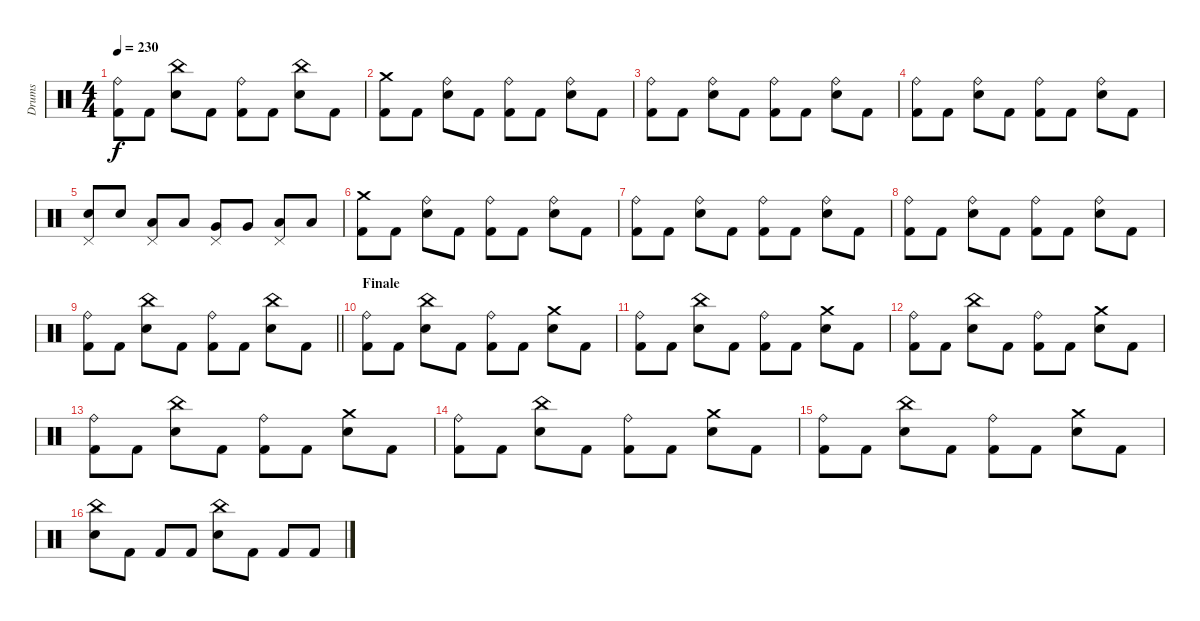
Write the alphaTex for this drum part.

\track ("Drums" "Drums") {instrument percussion}
\staff {score}
\articulation defaults
\ts (4 4)
\tempo 230
\clef neutral
\ks c
("Ride (bell)" "Kick (hit) 2").8{dy f} "Kick (hit) 2".8 ("China (hit)" "Snare (hit) 2").8 "Kick (hit) 2".8 ("Ride (bell)" "Kick (hit) 2").8 "Kick (hit) 2".8 ("China (hit)" "Snare (hit) 2").8 "Kick (hit) 2".8 |
("Crash medium (hit)" "Kick (hit) 2").8 "Kick (hit) 2".8 ("Ride (bell)" "Snare (hit) 2").8 "Kick (hit) 2".8 ("Ride (bell)" "Kick (hit) 2").8 "Kick (hit) 2".8 ("Ride (bell)" "Snare (hit) 2").8 "Kick (hit) 2".8 |
("Ride (bell)" "Kick (hit) 2").8 "Kick (hit) 2".8 ("Ride (bell)" "Snare (hit) 2").8 "Kick (hit) 2".8 ("Ride (bell)" "Kick (hit) 2").8 "Kick (hit) 2".8 ("Ride (bell)" "Snare (hit) 2").8 "Kick (hit) 2".8 |
("Ride (bell)" "Kick (hit) 2").8 "Kick (hit) 2".8 ("Ride (bell)" "Snare (hit) 2").8 "Kick (hit) 2".8 ("Ride (bell)" "Kick (hit) 2").8 "Kick (hit) 2".8 ("Ride (bell)" "Snare (hit) 2").8 "Kick (hit) 2".8 |
("Pedal Hi-Hat (hit)" "Snare (hit) 2").8 "Snare (hit) 2".8 ("Pedal Hi-Hat (hit)" "Low Tom (hit)").8 "Low Tom (hit)".8 ("Pedal Hi-Hat (hit)" "Very Low Tom (hit)").8 "Very Low Tom (hit)".8 ("Pedal Hi-Hat (hit)" "Low Floor Tom (hit)").8 "Low Floor Tom (hit)".8 |
("Crash medium (hit)" "Kick (hit) 2").8 "Kick (hit) 2".8 ("Ride (bell)" "Snare (hit) 2").8 "Kick (hit) 2".8 ("Ride (bell)" "Kick (hit) 2").8 "Kick (hit) 2".8 ("Ride (bell)" "Snare (hit) 2").8 "Kick (hit) 2".8 |
("Ride (bell)" "Kick (hit) 2").8 "Kick (hit) 2".8 ("Ride (bell)" "Snare (hit) 2").8 "Kick (hit) 2".8 ("Ride (bell)" "Kick (hit) 2").8 "Kick (hit) 2".8 ("Ride (bell)" "Snare (hit) 2").8 "Kick (hit) 2".8 |
("Ride (bell)" "Kick (hit) 2").8 "Kick (hit) 2".8 ("Ride (bell)" "Snare (hit) 2").8 "Kick (hit) 2".8 ("Ride (bell)" "Kick (hit) 2").8 "Kick (hit) 2".8 ("Ride (bell)" "Snare (hit) 2").8 "Kick (hit) 2".8 |
\barLineRight lightlight
("Ride (bell)" "Kick (hit) 2").8 "Kick (hit) 2".8 ("China (hit)" "Snare (hit) 2").8 "Kick (hit) 2".8 ("Ride (bell)" "Kick (hit) 2").8 "Kick (hit) 2".8 ("China (hit)" "Snare (hit) 2").8 "Kick (hit) 2".8 |
\section ("" "Finale")
("Ride (bell)" "Kick (hit) 2").8 "Kick (hit) 2".8 ("China (hit)" "Snare (hit) 2").8 "Kick (hit) 2".8 ("Ride (bell)" "Kick (hit) 2").8 "Kick (hit) 2".8 ("Crash medium (hit)" "Snare (hit) 2").8 "Kick (hit) 2".8 |
("Ride (bell)" "Kick (hit) 2").8 "Kick (hit) 2".8 ("China (hit)" "Snare (hit) 2").8 "Kick (hit) 2".8 ("Ride (bell)" "Kick (hit) 2").8 "Kick (hit) 2".8 ("Crash medium (hit)" "Snare (hit) 2").8 "Kick (hit) 2".8 |
("Ride (bell)" "Kick (hit) 2").8 "Kick (hit) 2".8 ("China (hit)" "Snare (hit) 2").8 "Kick (hit) 2".8 ("Ride (bell)" "Kick (hit) 2").8 "Kick (hit) 2".8 ("Crash medium (hit)" "Snare (hit) 2").8 "Kick (hit) 2".8 |
("Ride (bell)" "Kick (hit) 2").8 "Kick (hit) 2".8 ("China (hit)" "Snare (hit) 2").8 "Kick (hit) 2".8 ("Ride (bell)" "Kick (hit) 2").8 "Kick (hit) 2".8 ("Crash medium (hit)" "Snare (hit) 2").8 "Kick (hit) 2".8 |
("Ride (bell)" "Kick (hit) 2").8 "Kick (hit) 2".8 ("China (hit)" "Snare (hit) 2").8 "Kick (hit) 2".8 ("Ride (bell)" "Kick (hit) 2").8 "Kick (hit) 2".8 ("Crash medium (hit)" "Snare (hit) 2").8 "Kick (hit) 2".8 |
("Ride (bell)" "Kick (hit) 2").8 "Kick (hit) 2".8 ("China (hit)" "Snare (hit) 2").8 "Kick (hit) 2".8 ("Ride (bell)" "Kick (hit) 2").8 "Kick (hit) 2".8 ("Crash medium (hit)" "Snare (hit) 2").8 "Kick (hit) 2".8 |
("China (hit)" "Snare (hit) 2").8 "Kick (hit) 2".8 "Kick (hit) 2".8 "Kick (hit) 2".8 ("China (hit)" "Snare (hit) 2").8 "Kick (hit) 2".8 "Kick (hit) 2".8 "Kick (hit) 2".8
